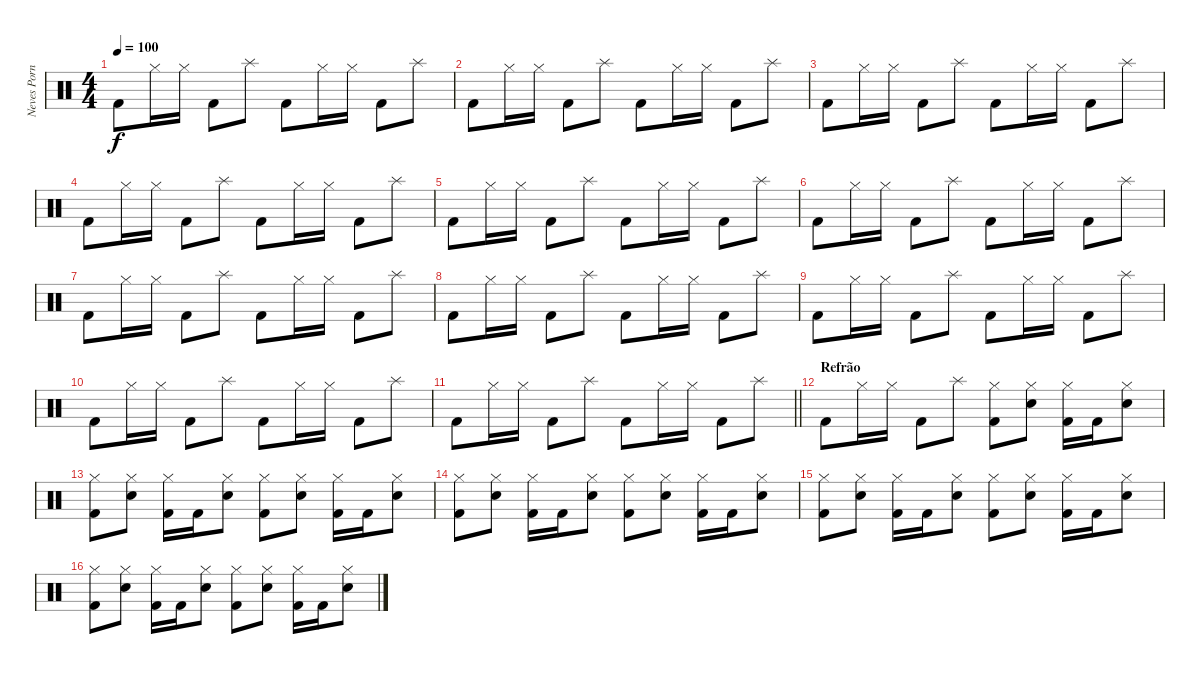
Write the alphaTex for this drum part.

\track ("Neves Porntoy" "Neves Porn") {instrument percussion}
\staff {score}
\articulation defaults
\ts (4 4)
\tempo 100
\clef neutral
\ks c "Kick (hit) 2".8{dy f} "Hi-Hat (closed)".16 "Hi-Hat (closed)".16 "Kick (hit) 2".8 "Splash (hit)".8 "Kick (hit) 2".8 "Hi-Hat (closed)".16 "Hi-Hat (closed)".16 "Kick (hit) 2".8 "Splash (hit)".8
|
"Kick (hit) 2".8 "Hi-Hat (closed)".16 "Hi-Hat (closed)".16 "Kick (hit) 2".8 "Splash (hit)".8 "Kick (hit) 2".8 "Hi-Hat (closed)".16 "Hi-Hat (closed)".16 "Kick (hit) 2".8 "Splash (hit)".8 |
"Kick (hit) 2".8 "Hi-Hat (closed)".16 "Hi-Hat (closed)".16 "Kick (hit) 2".8 "Splash (hit)".8 "Kick (hit) 2".8 "Hi-Hat (closed)".16 "Hi-Hat (closed)".16 "Kick (hit) 2".8 "Splash (hit)".8 |
"Kick (hit) 2".8 "Hi-Hat (closed)".16 "Hi-Hat (closed)".16 "Kick (hit) 2".8 "Splash (hit)".8 "Kick (hit) 2".8 "Hi-Hat (closed)".16 "Hi-Hat (closed)".16 "Kick (hit) 2".8 "Splash (hit)".8 |
"Kick (hit) 2".8 "Hi-Hat (closed)".16 "Hi-Hat (closed)".16 "Kick (hit) 2".8 "Splash (hit)".8 "Kick (hit) 2".8 "Hi-Hat (closed)".16 "Hi-Hat (closed)".16 "Kick (hit) 2".8 "Splash (hit)".8 |
"Kick (hit) 2".8 "Hi-Hat (closed)".16 "Hi-Hat (closed)".16 "Kick (hit) 2".8 "Splash (hit)".8 "Kick (hit) 2".8 "Hi-Hat (closed)".16 "Hi-Hat (closed)".16 "Kick (hit) 2".8 "Splash (hit)".8 |
"Kick (hit) 2".8 "Hi-Hat (closed)".16 "Hi-Hat (closed)".16 "Kick (hit) 2".8 "Splash (hit)".8 "Kick (hit) 2".8 "Hi-Hat (closed)".16 "Hi-Hat (closed)".16 "Kick (hit) 2".8 "Splash (hit)".8 |
"Kick (hit) 2".8 "Hi-Hat (closed)".16 "Hi-Hat (closed)".16 "Kick (hit) 2".8 "Splash (hit)".8 "Kick (hit) 2".8 "Hi-Hat (closed)".16 "Hi-Hat (closed)".16 "Kick (hit) 2".8 "Splash (hit)".8 |
"Kick (hit) 2".8 "Hi-Hat (closed)".16 "Hi-Hat (closed)".16 "Kick (hit) 2".8 "Splash (hit)".8 "Kick (hit) 2".8 "Hi-Hat (closed)".16 "Hi-Hat (closed)".16 "Kick (hit) 2".8 "Splash (hit)".8 |
"Kick (hit) 2".8 "Hi-Hat (closed)".16 "Hi-Hat (closed)".16 "Kick (hit) 2".8 "Splash (hit)".8 "Kick (hit) 2".8 "Hi-Hat (closed)".16 "Hi-Hat (closed)".16 "Kick (hit) 2".8 "Splash (hit)".8 |
\barLineRight lightlight "Kick (hit) 2".8 "Hi-Hat (closed)".16 "Hi-Hat (closed)".16 "Kick (hit) 2".8 "Splash (hit)".8 "Kick (hit) 2".8 "Hi-Hat (closed)".16 "Hi-Hat (closed)".16 "Kick (hit) 2".8 "Splash (hit)".8
|
\section ("" "Refrão")
"Kick (hit) 2".8 "Hi-Hat (closed)".16 "Hi-Hat (closed)".16 "Kick (hit) 2".8 "Splash (hit)".8 ("Kick (hit) 2" "Hi-Hat (closed)").8 ("Electric Snare (hit)" "Hi-Hat (closed)").8 ("Kick (hit) 2" "Hi-Hat (closed)").16 "Kick (hit) 2".16 ("Electric Snare (hit)" "Hi-Hat (closed)").8 |
("Kick (hit) 2" "Hi-Hat (closed)").8 ("Electric Snare (hit)" "Hi-Hat (closed)").8 ("Kick (hit) 2" "Hi-Hat (closed)").16 "Kick (hit) 2".16 ("Electric Snare (hit)" "Hi-Hat (closed)").8 ("Kick (hit) 2" "Hi-Hat (closed)").8 ("Electric Snare (hit)" "Hi-Hat (closed)").8 ("Kick (hit) 2" "Hi-Hat (closed)").16 "Kick (hit) 2".16 ("Electric Snare (hit)" "Hi-Hat (closed)").8 |
("Kick (hit) 2" "Hi-Hat (closed)").8 ("Electric Snare (hit)" "Hi-Hat (closed)").8 ("Kick (hit) 2" "Hi-Hat (closed)").16 "Kick (hit) 2".16 ("Electric Snare (hit)" "Hi-Hat (closed)").8 ("Kick (hit) 2" "Hi-Hat (closed)").8 ("Electric Snare (hit)" "Hi-Hat (closed)").8 ("Kick (hit) 2" "Hi-Hat (closed)").16 "Kick (hit) 2".16 ("Electric Snare (hit)" "Hi-Hat (closed)").8 |
("Kick (hit) 2" "Hi-Hat (closed)").8 ("Electric Snare (hit)" "Hi-Hat (closed)").8 ("Kick (hit) 2" "Hi-Hat (closed)").16 "Kick (hit) 2".16 ("Electric Snare (hit)" "Hi-Hat (closed)").8 ("Kick (hit) 2" "Hi-Hat (closed)").8 ("Electric Snare (hit)" "Hi-Hat (closed)").8 ("Kick (hit) 2" "Hi-Hat (closed)").16 "Kick (hit) 2".16 ("Electric Snare (hit)" "Hi-Hat (closed)").8 |
("Kick (hit) 2" "Hi-Hat (closed)").8 ("Electric Snare (hit)" "Hi-Hat (closed)").8 ("Kick (hit) 2" "Hi-Hat (closed)").16 "Kick (hit) 2".16 ("Electric Snare (hit)" "Hi-Hat (closed)").8 ("Kick (hit) 2" "Hi-Hat (closed)").8 ("Electric Snare (hit)" "Hi-Hat (closed)").8 ("Kick (hit) 2" "Hi-Hat (closed)").16 "Kick (hit) 2".16 ("Electric Snare (hit)" "Hi-Hat (closed)").8
